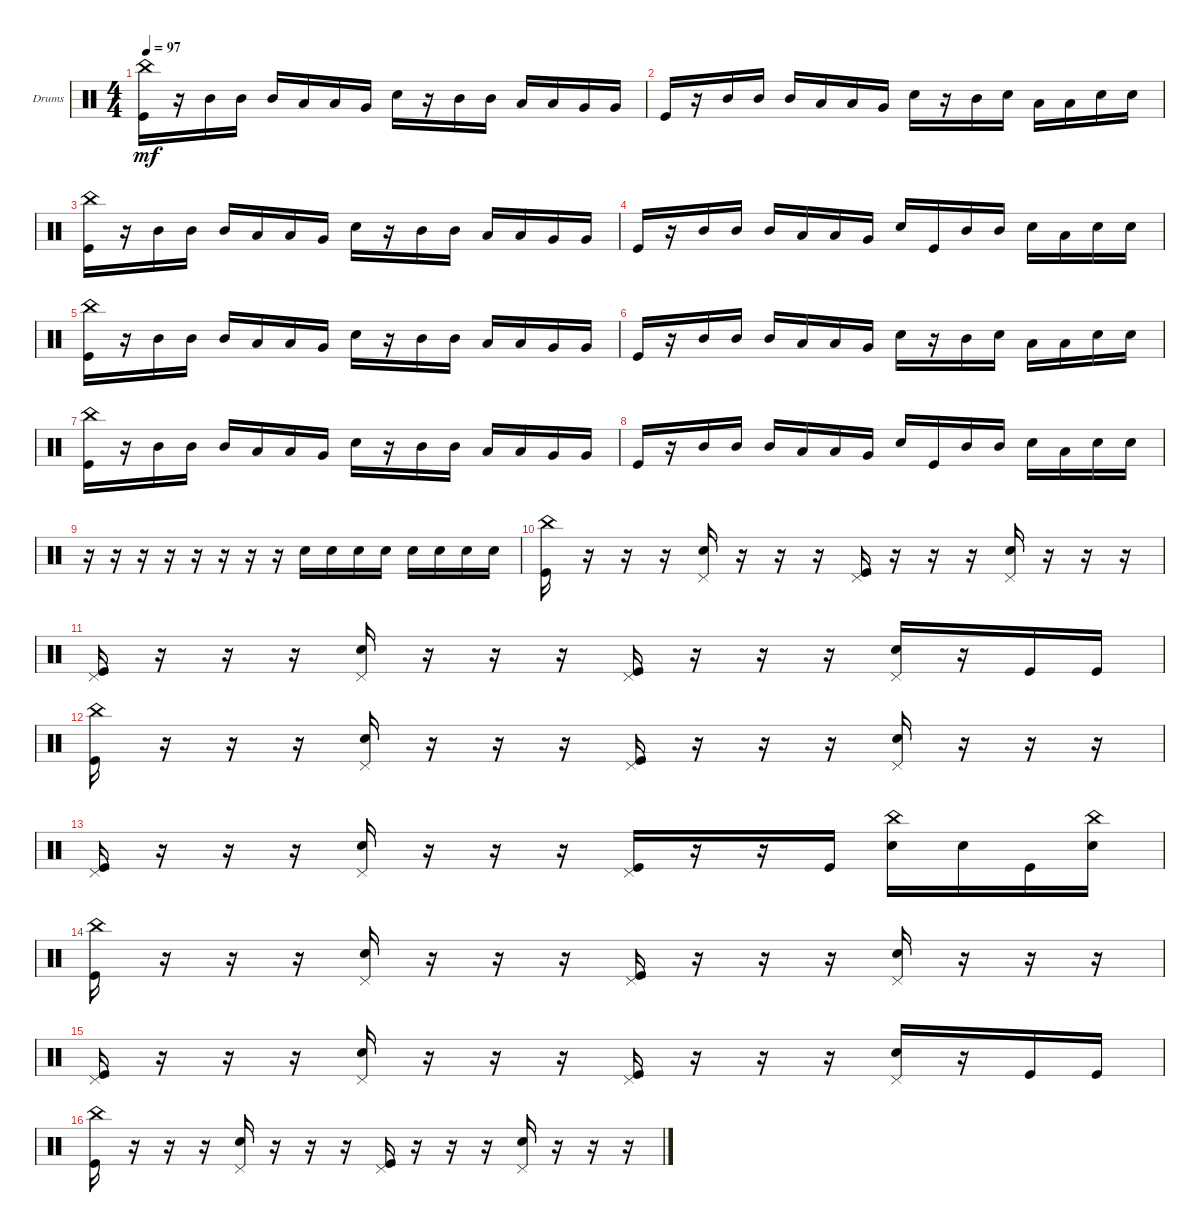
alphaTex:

\defaultSystemsLayout 4
\bracketExtendMode groupsimilarinstruments
\firstSystemTrackNameOrientation horizontal
\otherSystemsTrackNameOrientation horizontal
\track ("Drumkit" "Drums") {instrument percussion}
\staff {score}
\articulation defaults
\ts (4 4)
\tempo 97
\clef neutral
\ks c
("Kick (hit)" "China (hit)").16{dy mf} r.16 "Mid Tom (hit)".16 "Mid Tom (hit)".16 "Mid Tom (hit)".16 "Low Tom (hit)".16 "Low Tom (hit)".16 "Very Low Tom (hit)".16 "Snare (hit) 2".16 r.16 "Mid Tom (hit)".16 "Mid Tom (hit)".16 "Low Tom (hit)".16 "Low Tom (hit)".16 "Very Low Tom (hit)".16 "Very Low Tom (hit)".16 |
"Kick (hit)".16 r.16 "Mid Tom (hit)".16 "Mid Tom (hit)".16 "Mid Tom (hit)".16 "Low Tom (hit)".16 "Low Tom (hit)".16 "Very Low Tom (hit)".16 "Snare (hit) 2".16 r.16 "Mid Tom (hit)".16 "Snare (hit) 2".16 "Low Tom (hit)".16 "Low Tom (hit)".16 "Snare (hit) 2".16 "Snare (hit) 2".16 |
("Kick (hit)" "China (hit)").16 r.16 "Mid Tom (hit)".16 "Mid Tom (hit)".16 "Mid Tom (hit)".16 "Low Tom (hit)".16 "Low Tom (hit)".16 "Very Low Tom (hit)".16 "Snare (hit) 2".16 r.16 "Mid Tom (hit)".16 "Mid Tom (hit)".16 "Low Tom (hit)".16 "Low Tom (hit)".16 "Very Low Tom (hit)".16 "Very Low Tom (hit)".16 |
"Kick (hit)".16 r.16 "Mid Tom (hit)".16 "Mid Tom (hit)".16 "Mid Tom (hit)".16 "Low Tom (hit)".16 "Low Tom (hit)".16 "Very Low Tom (hit)".16 "Snare (hit) 2".16 "Kick (hit)".16 "Mid Tom (hit)".16 "Mid Tom (hit)".16 "Snare (hit) 2".16 "Low Tom (hit)".16 "Snare (hit) 2".16 "Snare (hit) 2".16 |
("Kick (hit)" "China (hit)").16 r.16 "Mid Tom (hit)".16 "Mid Tom (hit)".16 "Mid Tom (hit)".16 "Low Tom (hit)".16 "Low Tom (hit)".16 "Very Low Tom (hit)".16 "Snare (hit) 2".16 r.16 "Mid Tom (hit)".16 "Mid Tom (hit)".16 "Low Tom (hit)".16 "Low Tom (hit)".16 "Very Low Tom (hit)".16 "Very Low Tom (hit)".16 |
"Kick (hit)".16 r.16 "Mid Tom (hit)".16 "Mid Tom (hit)".16 "Mid Tom (hit)".16 "Low Tom (hit)".16 "Low Tom (hit)".16 "Very Low Tom (hit)".16 "Snare (hit) 2".16 r.16 "Mid Tom (hit)".16 "Snare (hit) 2".16 "Low Tom (hit)".16 "Low Tom (hit)".16 "Snare (hit) 2".16 "Snare (hit) 2".16 |
("Kick (hit)" "China (hit)").16 r.16 "Mid Tom (hit)".16 "Mid Tom (hit)".16 "Mid Tom (hit)".16 "Low Tom (hit)".16 "Low Tom (hit)".16 "Very Low Tom (hit)".16 "Snare (hit) 2".16 r.16 "Mid Tom (hit)".16 "Mid Tom (hit)".16 "Low Tom (hit)".16 "Low Tom (hit)".16 "Very Low Tom (hit)".16 "Very Low Tom (hit)".16 |
"Kick (hit)".16 r.16 "Mid Tom (hit)".16 "Mid Tom (hit)".16 "Mid Tom (hit)".16 "Low Tom (hit)".16 "Low Tom (hit)".16 "Very Low Tom (hit)".16 "Snare (hit) 2".16 "Kick (hit)".16 "Mid Tom (hit)".16 "Mid Tom (hit)".16 "Snare (hit) 2".16 "Low Tom (hit)".16 "Snare (hit) 2".16 "Snare (hit) 2".16 |
r.16 r.16 r.16 r.16 r.16 r.16 r.16 r.16 "Snare (hit) 2".16 "Snare (hit) 2".16 "Snare (hit) 2".16 "Snare (hit) 2".16 "Snare (hit) 2".16 "Snare (hit) 2".16 "Snare (hit) 2".16 "Snare (hit) 2".16 |
("Kick (hit)" "China (hit)").16 r.16 r.16 r.16 ("Pedal Hi-Hat (hit)" "Snare (hit) 2").16 r.16 r.16 r.16 ("Pedal Hi-Hat (hit)" "Kick (hit)").16 r.16 r.16 r.16 ("Pedal Hi-Hat (hit)" "Snare (hit) 2").16 r.16 r.16 r.16 |
("Kick (hit)" "Pedal Hi-Hat (hit)").16 r.16 r.16 r.16 ("Pedal Hi-Hat (hit)" "Snare (hit) 2").16 r.16 r.16 r.16 ("Pedal Hi-Hat (hit)" "Kick (hit)").16 r.16 r.16 r.16 ("Pedal Hi-Hat (hit)" "Snare (hit) 2").16 r.16 "Kick (hit)".16 "Kick (hit)".16 |
("Kick (hit)" "China (hit)").16 r.16 r.16 r.16 ("Pedal Hi-Hat (hit)" "Snare (hit) 2").16 r.16 r.16 r.16 ("Pedal Hi-Hat (hit)" "Kick (hit)").16 r.16 r.16 r.16 ("Pedal Hi-Hat (hit)" "Snare (hit) 2").16 r.16 r.16 r.16 |
("Kick (hit)" "Pedal Hi-Hat (hit)").16 r.16 r.16 r.16 ("Pedal Hi-Hat (hit)" "Snare (hit) 2").16 r.16 r.16 r.16 ("Pedal Hi-Hat (hit)" "Kick (hit)").16 r.16 r.16 "Kick (hit)".16 ("Snare (hit) 2" "China (hit)").16 "Snare (hit) 2".16 "Kick (hit)".16 ("Snare (hit) 2" "China (hit)").16 |
("Kick (hit)" "China (hit)").16 r.16 r.16 r.16 ("Pedal Hi-Hat (hit)" "Snare (hit) 2").16 r.16 r.16 r.16 ("Pedal Hi-Hat (hit)" "Kick (hit)").16 r.16 r.16 r.16 ("Pedal Hi-Hat (hit)" "Snare (hit) 2").16 r.16 r.16 r.16 |
("Kick (hit)" "Pedal Hi-Hat (hit)").16 r.16 r.16 r.16 ("Pedal Hi-Hat (hit)" "Snare (hit) 2").16 r.16 r.16 r.16 ("Pedal Hi-Hat (hit)" "Kick (hit)").16 r.16 r.16 r.16 ("Pedal Hi-Hat (hit)" "Snare (hit) 2").16 r.16 "Kick (hit)".16 "Kick (hit)".16 |
("Kick (hit)" "China (hit)").16 r.16 r.16 r.16 ("Pedal Hi-Hat (hit)" "Snare (hit) 2").16 r.16 r.16 r.16 ("Pedal Hi-Hat (hit)" "Kick (hit)").16 r.16 r.16 r.16 ("Pedal Hi-Hat (hit)" "Snare (hit) 2").16 r.16 r.16 r.16
